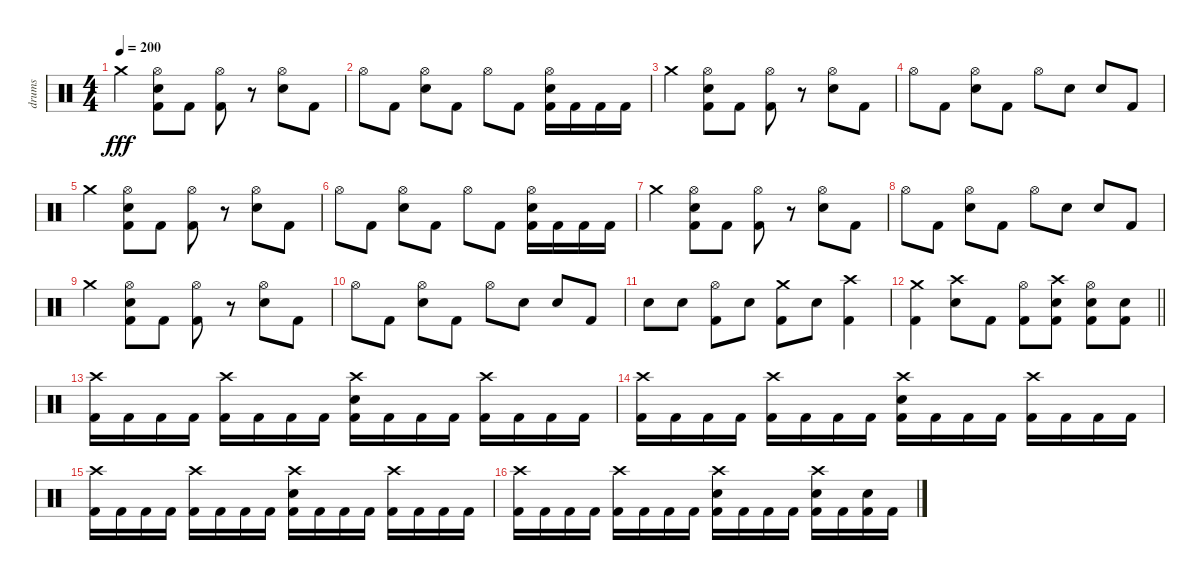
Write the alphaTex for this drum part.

\track ("drums" "drums") {instrument percussion}
\staff {score}
\articulation defaults
\ts (4 4)
\section ("" "")
\tempo 200
\clef neutral
\ks c "Crash medium (hit)".4{dy fff}
("Hi-Hat (open)" "Electric Snare (hit)" "Kick (hit) 2").8 "Kick (hit) 2".8 ("Hi-Hat (open)" "Kick (hit) 2").8 r.8 ("Hi-Hat (open)" "Electric Snare (hit)").8 "Kick (hit) 2".8 |
"Hi-Hat (open)".8 "Kick (hit) 2".8 ("Hi-Hat (open)" "Electric Snare (hit)").8 "Kick (hit) 2".8 "Hi-Hat (open)".8 "Kick (hit) 2".8 ("Hi-Hat (open)" "Electric Snare (hit)" "Kick (hit) 2").16 "Kick (hit) 2".16 "Kick (hit) 2".16 "Kick (hit) 2".16 |
"Crash medium (hit)".4 ("Hi-Hat (open)" "Electric Snare (hit)" "Kick (hit) 2").8 "Kick (hit) 2".8 ("Hi-Hat (open)" "Kick (hit) 2").8 r.8 ("Hi-Hat (open)" "Electric Snare (hit)").8 "Kick (hit) 2".8 |
"Hi-Hat (open)".8 "Kick (hit) 2".8 ("Hi-Hat (open)" "Electric Snare (hit)").8 "Kick (hit) 2".8 "Hi-Hat (open)".8 "Electric Snare (hit)".8 "Electric Snare (hit)".8 "Kick (hit) 2".8 |
"Crash medium (hit)".4 ("Hi-Hat (open)" "Electric Snare (hit)" "Kick (hit) 2").8 "Kick (hit) 2".8 ("Hi-Hat (open)" "Kick (hit) 2").8 r.8 ("Hi-Hat (open)" "Electric Snare (hit)").8 "Kick (hit) 2".8 |
"Hi-Hat (open)".8 "Kick (hit) 2".8 ("Hi-Hat (open)" "Electric Snare (hit)").8 "Kick (hit) 2".8 "Hi-Hat (open)".8 "Kick (hit) 2".8 ("Hi-Hat (open)" "Electric Snare (hit)" "Kick (hit) 2").16 "Kick (hit) 2".16 "Kick (hit) 2".16 "Kick (hit) 2".16 |
"Crash medium (hit)".4 ("Hi-Hat (open)" "Electric Snare (hit)" "Kick (hit) 2").8 "Kick (hit) 2".8 ("Hi-Hat (open)" "Kick (hit) 2").8 r.8 ("Hi-Hat (open)" "Electric Snare (hit)").8 "Kick (hit) 2".8 |
"Hi-Hat (open)".8 "Kick (hit) 2".8 ("Hi-Hat (open)" "Electric Snare (hit)").8 "Kick (hit) 2".8 "Hi-Hat (open)".8 "Electric Snare (hit)".8 "Electric Snare (hit)".8 "Kick (hit) 2".8 |
"Crash medium (hit)".4 ("Hi-Hat (open)" "Electric Snare (hit)" "Kick (hit) 2").8 "Kick (hit) 2".8 ("Hi-Hat (open)" "Kick (hit) 2").8 r.8 ("Hi-Hat (open)" "Electric Snare (hit)").8 "Kick (hit) 2".8 |
"Hi-Hat (open)".8 "Kick (hit) 2".8 ("Hi-Hat (open)" "Electric Snare (hit)").8 "Kick (hit) 2".8 "Hi-Hat (open)".8 "Electric Snare (hit)".8 "Electric Snare (hit)".8 "Kick (hit) 2".8 |
"Electric Snare (hit)".8 "Electric Snare (hit)".8 ("Hi-Hat (open)" "Kick (hit) 2").8 "Electric Snare (hit)".8 ("Crash medium (hit)" "Kick (hit) 2").8 "Electric Snare (hit)".8 ("Crash high (hit)" "Kick (hit) 2").4 |
\barLineRight lightlight
("Crash medium (hit)" "Kick (hit) 2").4 ("Crash high (hit)" "Electric Snare (hit)").8 "Kick (hit) 2".8 ("Hi-Hat (open)" "Kick (hit) 2").8 ("Crash high (hit)" "Electric Snare (hit)" "Kick (hit) 2").8 ("Hi-Hat (open)" "Electric Snare (hit)" "Kick (hit) 2").8 ("Electric Snare (hit)" "Kick (hit) 2").8 |
\section ("" "")
("Crash high (hit)" "Kick (hit) 2").16 "Kick (hit) 2".16 "Kick (hit) 2".16 "Kick (hit) 2".16 ("Crash high (hit)" "Kick (hit) 2").16 "Kick (hit) 2".16 "Kick (hit) 2".16 "Kick (hit) 2".16 ("Crash high (hit)" "Electric Snare (hit)" "Kick (hit) 2").16 "Kick (hit) 2".16 "Kick (hit) 2".16 "Kick (hit) 2".16 ("Crash high (hit)" "Kick (hit) 2").16 "Kick (hit) 2".16 "Kick (hit) 2".16 "Kick (hit) 2".16 |
("Crash high (hit)" "Kick (hit) 2").16 "Kick (hit) 2".16 "Kick (hit) 2".16 "Kick (hit) 2".16 ("Crash high (hit)" "Kick (hit) 2").16 "Kick (hit) 2".16 "Kick (hit) 2".16 "Kick (hit) 2".16 ("Crash high (hit)" "Electric Snare (hit)" "Kick (hit) 2").16 "Kick (hit) 2".16 "Kick (hit) 2".16 "Kick (hit) 2".16 ("Crash high (hit)" "Kick (hit) 2").16 "Kick (hit) 2".16 "Kick (hit) 2".16 "Kick (hit) 2".16 |
("Crash high (hit)" "Kick (hit) 2").16 "Kick (hit) 2".16 "Kick (hit) 2".16 "Kick (hit) 2".16 ("Crash high (hit)" "Kick (hit) 2").16 "Kick (hit) 2".16 "Kick (hit) 2".16 "Kick (hit) 2".16 ("Crash high (hit)" "Electric Snare (hit)" "Kick (hit) 2").16 "Kick (hit) 2".16 "Kick (hit) 2".16 "Kick (hit) 2".16 ("Crash high (hit)" "Kick (hit) 2").16 "Kick (hit) 2".16 "Kick (hit) 2".16 "Kick (hit) 2".16 |
("Crash high (hit)" "Kick (hit) 2").16 "Kick (hit) 2".16 "Kick (hit) 2".16 "Kick (hit) 2".16 ("Crash high (hit)" "Kick (hit) 2").16 "Kick (hit) 2".16 "Kick (hit) 2".16 "Kick (hit) 2".16 ("Crash high (hit)" "Electric Snare (hit)" "Kick (hit) 2").16 "Kick (hit) 2".16 "Kick (hit) 2".16 "Kick (hit) 2".16 ("Crash high (hit)" "Electric Snare (hit)" "Kick (hit) 2").16 "Kick (hit) 2".16 ("Electric Snare (hit)" "Kick (hit) 2").16 "Kick (hit) 2".16
